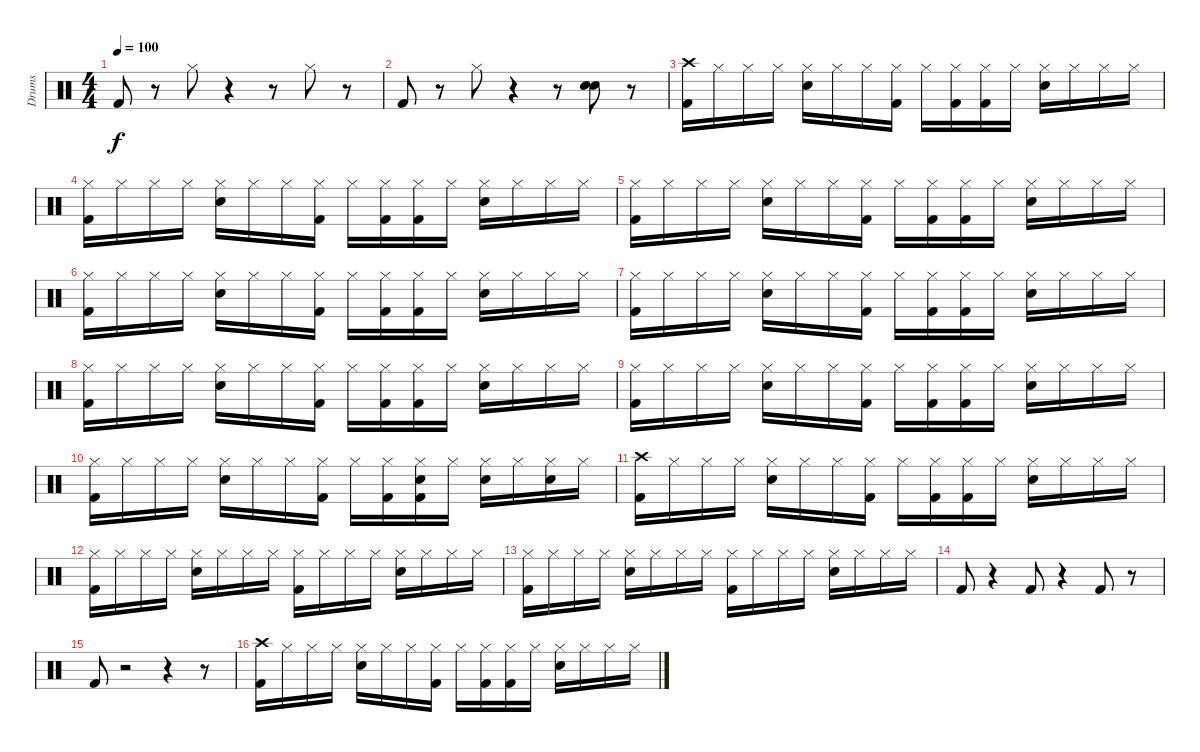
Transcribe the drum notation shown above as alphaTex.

\track ("Drums" "Drums") {instrument percussion}
\staff {score}
\articulation defaults
\ts (4 4)
\tempo 100
\clef neutral
\ks c "Kick (hit) 2".8{dy f}
r.8 "Hi-Hat (closed)".8 r.4 r.8 "Hi-Hat (closed)".8 r.8 |
"Kick (hit) 2".8 r.8 "Hi-Hat (closed)".8 r.4 r.8 ("Electric Snare (hit)" "Snare (hit) 2").8 r.8 |
("Crash high (hit)" "Kick (hit) 2").16 "Hi-Hat (closed)".16 "Hi-Hat (closed)".16 "Hi-Hat (closed)".16 ("Hi-Hat (closed)" "Electric Snare (hit)").16 "Hi-Hat (closed)".16 "Hi-Hat (closed)".16 ("Hi-Hat (closed)" "Kick (hit) 2").16 "Hi-Hat (closed)".16 ("Hi-Hat (closed)" "Kick (hit) 2").16 ("Hi-Hat (closed)" "Kick (hit) 2").16 "Hi-Hat (closed)".16 ("Hi-Hat (closed)" "Electric Snare (hit)").16 "Hi-Hat (closed)".16 "Hi-Hat (closed)".16 "Hi-Hat (closed)".16 |
("Hi-Hat (closed)" "Kick (hit) 2").16 "Hi-Hat (closed)".16 "Hi-Hat (closed)".16 "Hi-Hat (closed)".16 ("Hi-Hat (closed)" "Electric Snare (hit)").16 "Hi-Hat (closed)".16 "Hi-Hat (closed)".16 ("Hi-Hat (closed)" "Kick (hit) 2").16 "Hi-Hat (closed)".16 ("Hi-Hat (closed)" "Kick (hit) 2").16 ("Hi-Hat (closed)" "Kick (hit) 2").16 "Hi-Hat (closed)".16 ("Hi-Hat (closed)" "Electric Snare (hit)").16 "Hi-Hat (closed)".16 "Hi-Hat (closed)".16 "Hi-Hat (closed)".16 |
("Hi-Hat (closed)" "Kick (hit) 2").16 "Hi-Hat (closed)".16 "Hi-Hat (closed)".16 "Hi-Hat (closed)".16 ("Hi-Hat (closed)" "Electric Snare (hit)").16 "Hi-Hat (closed)".16 "Hi-Hat (closed)".16 ("Hi-Hat (closed)" "Kick (hit) 2").16 "Hi-Hat (closed)".16 ("Hi-Hat (closed)" "Kick (hit) 2").16 ("Hi-Hat (closed)" "Kick (hit) 2").16 "Hi-Hat (closed)".16 ("Hi-Hat (closed)" "Electric Snare (hit)").16 "Hi-Hat (closed)".16 "Hi-Hat (closed)".16 "Hi-Hat (closed)".16 |
("Hi-Hat (closed)" "Kick (hit) 2").16 "Hi-Hat (closed)".16 "Hi-Hat (closed)".16 "Hi-Hat (closed)".16 ("Hi-Hat (closed)" "Electric Snare (hit)").16 "Hi-Hat (closed)".16 "Hi-Hat (closed)".16 ("Hi-Hat (closed)" "Kick (hit) 2").16 "Hi-Hat (closed)".16 ("Hi-Hat (closed)" "Kick (hit) 2").16 ("Hi-Hat (closed)" "Kick (hit) 2").16 "Hi-Hat (closed)".16 ("Hi-Hat (closed)" "Electric Snare (hit)").16 "Hi-Hat (closed)".16 "Hi-Hat (closed)".16 "Hi-Hat (closed)".16 |
("Hi-Hat (closed)" "Kick (hit) 2").16 "Hi-Hat (closed)".16 "Hi-Hat (closed)".16 "Hi-Hat (closed)".16 ("Hi-Hat (closed)" "Electric Snare (hit)").16 "Hi-Hat (closed)".16 "Hi-Hat (closed)".16 ("Hi-Hat (closed)" "Kick (hit) 2").16 "Hi-Hat (closed)".16 ("Hi-Hat (closed)" "Kick (hit) 2").16 ("Hi-Hat (closed)" "Kick (hit) 2").16 "Hi-Hat (closed)".16 ("Hi-Hat (closed)" "Electric Snare (hit)").16 "Hi-Hat (closed)".16 "Hi-Hat (closed)".16 "Hi-Hat (closed)".16 |
("Hi-Hat (closed)" "Kick (hit) 2").16 "Hi-Hat (closed)".16 "Hi-Hat (closed)".16 "Hi-Hat (closed)".16 ("Hi-Hat (closed)" "Electric Snare (hit)").16 "Hi-Hat (closed)".16 "Hi-Hat (closed)".16 ("Hi-Hat (closed)" "Kick (hit) 2").16 "Hi-Hat (closed)".16 ("Hi-Hat (closed)" "Kick (hit) 2").16 ("Hi-Hat (closed)" "Kick (hit) 2").16 "Hi-Hat (closed)".16 ("Hi-Hat (closed)" "Electric Snare (hit)").16 "Hi-Hat (closed)".16 "Hi-Hat (closed)".16 "Hi-Hat (closed)".16 |
("Hi-Hat (closed)" "Kick (hit) 2").16 "Hi-Hat (closed)".16 "Hi-Hat (closed)".16 "Hi-Hat (closed)".16 ("Hi-Hat (closed)" "Electric Snare (hit)").16 "Hi-Hat (closed)".16 "Hi-Hat (closed)".16 ("Hi-Hat (closed)" "Kick (hit) 2").16 "Hi-Hat (closed)".16 ("Hi-Hat (closed)" "Kick (hit) 2").16 ("Hi-Hat (closed)" "Kick (hit) 2").16 "Hi-Hat (closed)".16 ("Hi-Hat (closed)" "Electric Snare (hit)").16 "Hi-Hat (closed)".16 "Hi-Hat (closed)".16 "Hi-Hat (closed)".16 |
("Hi-Hat (closed)" "Kick (hit) 2").16 "Hi-Hat (closed)".16 "Hi-Hat (closed)".16 "Hi-Hat (closed)".16 ("Hi-Hat (closed)" "Electric Snare (hit)").16 "Hi-Hat (closed)".16 "Hi-Hat (closed)".16 ("Hi-Hat (closed)" "Kick (hit) 2").16 "Hi-Hat (closed)".16 ("Hi-Hat (closed)" "Kick (hit) 2").16 ("Electric Snare (hit)" "Hi-Hat (closed)" "Kick (hit) 2").16 "Hi-Hat (closed)".16 ("Hi-Hat (closed)" "Electric Snare (hit)").16 "Hi-Hat (closed)".16 ("Electric Snare (hit)" "Hi-Hat (closed)").16 "Hi-Hat (closed)".16 |
("Crash high (hit)" "Kick (hit) 2").16 "Hi-Hat (closed)".16 "Hi-Hat (closed)".16 "Hi-Hat (closed)".16 ("Hi-Hat (closed)" "Electric Snare (hit)").16 "Hi-Hat (closed)".16 "Hi-Hat (closed)".16 ("Hi-Hat (closed)" "Kick (hit) 2").16 "Hi-Hat (closed)".16 ("Hi-Hat (closed)" "Kick (hit) 2").16 ("Hi-Hat (closed)" "Kick (hit) 2").16 "Hi-Hat (closed)".16 ("Hi-Hat (closed)" "Electric Snare (hit)").16 "Hi-Hat (closed)".16 "Hi-Hat (closed)".16 "Hi-Hat (closed)".16 |
("Hi-Hat (closed)" "Kick (hit) 2").16 "Hi-Hat (closed)".16 "Hi-Hat (closed)".16 "Hi-Hat (closed)".16 ("Hi-Hat (closed)" "Electric Snare (hit)").16 "Hi-Hat (closed)".16 "Hi-Hat (closed)".16 "Hi-Hat (closed)".16 ("Kick (hit) 2" "Hi-Hat (closed)").16 "Hi-Hat (closed)".16 "Hi-Hat (closed)".16 "Hi-Hat (closed)".16 ("Hi-Hat (closed)" "Electric Snare (hit)").16 "Hi-Hat (closed)".16 "Hi-Hat (closed)".16 "Hi-Hat (closed)".16 |
("Hi-Hat (closed)" "Kick (hit) 2").16 "Hi-Hat (closed)".16 "Hi-Hat (closed)".16 "Hi-Hat (closed)".16 ("Hi-Hat (closed)" "Electric Snare (hit)").16 "Hi-Hat (closed)".16 "Hi-Hat (closed)".16 "Hi-Hat (closed)".16 ("Kick (hit) 2" "Hi-Hat (closed)").16 "Hi-Hat (closed)".16 "Hi-Hat (closed)".16 "Hi-Hat (closed)".16 ("Hi-Hat (closed)" "Electric Snare (hit)").16 "Hi-Hat (closed)".16 "Hi-Hat (closed)".16 "Hi-Hat (closed)".16 |
"Kick (hit) 2".8 r.4 "Kick (hit) 2".8 r.4 "Kick (hit) 2".8 r.8 |
"Kick (hit) 2".8 r.2 r.4 r.8 |
("Crash high (hit)" "Kick (hit) 2").16 "Hi-Hat (closed)".16 "Hi-Hat (closed)".16 "Hi-Hat (closed)".16 ("Hi-Hat (closed)" "Electric Snare (hit)").16 "Hi-Hat (closed)".16 "Hi-Hat (closed)".16 ("Hi-Hat (closed)" "Kick (hit) 2").16 "Hi-Hat (closed)".16 ("Hi-Hat (closed)" "Kick (hit) 2").16 ("Hi-Hat (closed)" "Kick (hit) 2").16 "Hi-Hat (closed)".16 ("Hi-Hat (closed)" "Electric Snare (hit)").16 "Hi-Hat (closed)".16 "Hi-Hat (closed)".16 "Hi-Hat (closed)".16
